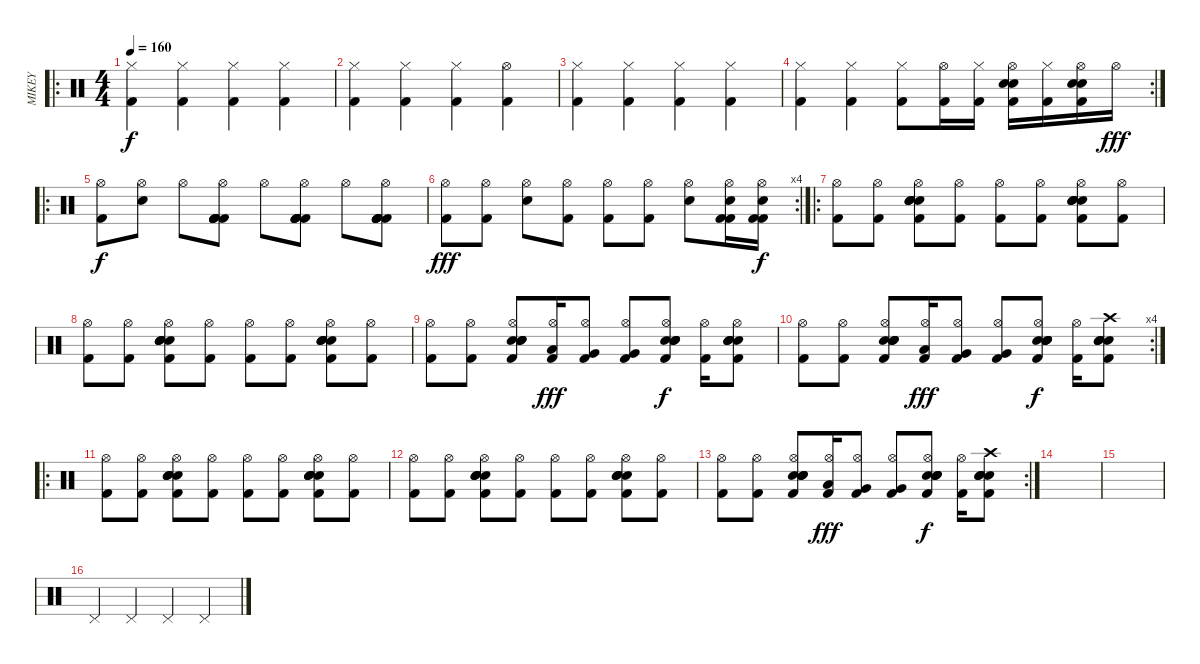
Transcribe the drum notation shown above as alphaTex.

\track ("MIKEY" "MIKEY") {instrument percussion}
\staff {score}
\articulation defaults
\ro
\ts (4 4)
\tempo 160
\clef neutral
\ks c
("Hi-Hat (closed)" "Kick (hit) 2").4{dy f} ("Hi-Hat (closed)" "Kick (hit) 2").4 ("Hi-Hat (closed)" "Kick (hit) 2").4 ("Hi-Hat (closed)" "Kick (hit) 2").4 |
("Hi-Hat (closed)" "Kick (hit) 2").4 ("Hi-Hat (closed)" "Kick (hit) 2").4 ("Hi-Hat (closed)" "Kick (hit) 2").4 ("Hi-Hat (open)" "Kick (hit) 2").4 |
("Hi-Hat (closed)" "Kick (hit) 2").4 ("Hi-Hat (closed)" "Kick (hit) 2").4 ("Hi-Hat (closed)" "Kick (hit) 2").4 ("Hi-Hat (closed)" "Kick (hit) 2").4 |
\rc 2
("Hi-Hat (closed)" "Kick (hit) 2").4 ("Hi-Hat (closed)" "Kick (hit) 2").4 ("Hi-Hat (closed)" "Kick (hit) 2").8 ("Hi-Hat (open)" "Kick (hit) 2").16 ("Hi-Hat (closed)" "Kick (hit) 2").16 ("Hi-Hat (open)" "Kick (hit) 2" "Electric Snare (hit)" "Electric Snare (hit)").16 ("Hi-Hat (closed)" "Kick (hit) 2").16 ("Hi-Hat (open)" "Kick (hit) 2" "Electric Snare (hit)" "Electric Snare (hit)").16 "Hi-Hat (open)".16{dy fff} |
\ro
("Kick (hit) 2" "Hi-Hat (open)").8{dy f} ("Electric Snare (hit)" "Hi-Hat (open)").8 "Hi-Hat (open)".8 ("Kick (hit) 2" "Kick (hit) 2" "Kick (hit) 2" "Kick (hit) 2" "Kick (hit) 2" "Hi-Hat (open)").8 "Hi-Hat (open)".8 ("Kick (hit) 2" "Kick (hit) 2" "Kick (hit) 2" "Kick (hit) 2" "Kick (hit) 2" "Hi-Hat (open)").8 "Hi-Hat (open)".8 ("Kick (hit) 2" "Kick (hit) 2" "Kick (hit) 2" "Kick (hit) 2" "Kick (hit) 2" "Hi-Hat (open)").8 |
\rc 4
("Kick (hit) 2" "Hi-Hat (open)").8{dy fff} ("Kick (hit) 2" "Hi-Hat (open)").8 ("Electric Snare (hit)" "Hi-Hat (open)").8 ("Kick (hit) 2" "Hi-Hat (open)").8 ("Kick (hit) 2" "Hi-Hat (open)").8 ("Kick (hit) 2" "Hi-Hat (open)").8 ("Electric Snare (hit)" "Hi-Hat (open)").8 ("Kick (hit) 2" "Kick (hit) 2" "Electric Snare (hit)" "Hi-Hat (open)").16 ("Kick (hit) 2" "Kick (hit) 2" "Electric Snare (hit)" "Hi-Hat (open)").16{dy f} |
\ro
("Hi-Hat (open)" "Kick (hit) 2").8 ("Hi-Hat (open)" "Kick (hit) 2").8 ("Kick (hit) 2" "Electric Snare (hit)" "Electric Snare (hit)" "Electric Snare (hit)" "Hi-Hat (open)" "Electric Snare (hit)").8 ("Hi-Hat (open)" "Kick (hit) 2").8 ("Hi-Hat (open)" "Kick (hit) 2").8 ("Hi-Hat (open)" "Kick (hit) 2").8 ("Kick (hit) 2" "Electric Snare (hit)" "Electric Snare (hit)" "Electric Snare (hit)" "Hi-Hat (open)" "Electric Snare (hit)").8 ("Hi-Hat (open)" "Kick (hit) 2").8 |
("Hi-Hat (open)" "Kick (hit) 2").8 ("Hi-Hat (open)" "Kick (hit) 2").8 ("Kick (hit) 2" "Electric Snare (hit)" "Electric Snare (hit)" "Electric Snare (hit)" "Hi-Hat (open)" "Electric Snare (hit)").8 ("Hi-Hat (open)" "Kick (hit) 2").8 ("Hi-Hat (open)" "Kick (hit) 2").8 ("Hi-Hat (open)" "Kick (hit) 2").8 ("Kick (hit) 2" "Electric Snare (hit)" "Electric Snare (hit)" "Electric Snare (hit)" "Hi-Hat (open)" "Electric Snare (hit)").8 ("Hi-Hat (open)" "Kick (hit) 2").8 |
("Hi-Hat (open)" "Kick (hit) 2").8 ("Hi-Hat (open)" "Kick (hit) 2").8 ("Kick (hit) 2" "Electric Snare (hit)" "Electric Snare (hit)" "Electric Snare (hit)" "Hi-Hat (open)" "Electric Snare (hit)").8 ("Low Tom (hit)" "Hi-Hat (open)" "Kick (hit) 2").16{dy fff} ("Very Low Tom (hit)" "Hi-Hat (open)" "Kick (hit) 2").8 ("Very Low Tom (hit)" "Hi-Hat (open)" "Kick (hit) 2").8 ("Kick (hit) 2" "Electric Snare (hit)" "Electric Snare (hit)" "Electric Snare (hit)" "Hi-Hat (open)" "Electric Snare (hit)").8{dy f} ("Hi-Hat (open)" "Kick (hit) 2").16 ("Kick (hit) 2" "Electric Snare (hit)" "Electric Snare (hit)" "Electric Snare (hit)" "Hi-Hat (open)" "Electric Snare (hit)").8 |
\rc 4
("Hi-Hat (open)" "Kick (hit) 2").8 ("Hi-Hat (open)" "Kick (hit) 2").8 ("Kick (hit) 2" "Electric Snare (hit)" "Electric Snare (hit)" "Electric Snare (hit)" "Hi-Hat (open)" "Electric Snare (hit)").8 ("Low Tom (hit)" "Hi-Hat (open)" "Kick (hit) 2").16{dy fff} ("Very Low Tom (hit)" "Hi-Hat (open)" "Kick (hit) 2").8 ("Very Low Tom (hit)" "Hi-Hat (open)" "Kick (hit) 2").8 ("Kick (hit) 2" "Electric Snare (hit)" "Electric Snare (hit)" "Electric Snare (hit)" "Hi-Hat (open)" "Electric Snare (hit)").8{dy f} ("Hi-Hat (open)" "Kick (hit) 2").16 ("Kick (hit) 2" "Electric Snare (hit)" "Electric Snare (hit)" "Electric Snare (hit)" "Crash high (hit)" "Electric Snare (hit)").8 |
\ro
("Hi-Hat (open)" "Kick (hit) 2").8 ("Hi-Hat (open)" "Kick (hit) 2").8 ("Kick (hit) 2" "Electric Snare (hit)" "Electric Snare (hit)" "Electric Snare (hit)" "Hi-Hat (open)" "Electric Snare (hit)").8 ("Hi-Hat (open)" "Kick (hit) 2").8 ("Hi-Hat (open)" "Kick (hit) 2").8 ("Hi-Hat (open)" "Kick (hit) 2").8 ("Kick (hit) 2" "Electric Snare (hit)" "Electric Snare (hit)" "Electric Snare (hit)" "Hi-Hat (open)" "Electric Snare (hit)").8 ("Hi-Hat (open)" "Kick (hit) 2").8 |
("Hi-Hat (open)" "Kick (hit) 2").8 ("Hi-Hat (open)" "Kick (hit) 2").8 ("Kick (hit) 2" "Electric Snare (hit)" "Electric Snare (hit)" "Electric Snare (hit)" "Hi-Hat (open)" "Electric Snare (hit)").8 ("Hi-Hat (open)" "Kick (hit) 2").8 ("Hi-Hat (open)" "Kick (hit) 2").8 ("Hi-Hat (open)" "Kick (hit) 2").8 ("Kick (hit) 2" "Electric Snare (hit)" "Electric Snare (hit)" "Electric Snare (hit)" "Hi-Hat (open)" "Electric Snare (hit)").8 ("Hi-Hat (open)" "Kick (hit) 2").8 |
\rc 2
("Hi-Hat (open)" "Kick (hit) 2").8 ("Hi-Hat (open)" "Kick (hit) 2").8 ("Kick (hit) 2" "Electric Snare (hit)" "Electric Snare (hit)" "Electric Snare (hit)" "Hi-Hat (open)" "Electric Snare (hit)").8 ("Low Tom (hit)" "Hi-Hat (open)" "Kick (hit) 2").16{dy fff} ("Very Low Tom (hit)" "Hi-Hat (open)" "Kick (hit) 2").8 ("Very Low Tom (hit)" "Hi-Hat (open)" "Kick (hit) 2").8 ("Kick (hit) 2" "Electric Snare (hit)" "Electric Snare (hit)" "Electric Snare (hit)" "Hi-Hat (open)" "Electric Snare (hit)").8{dy f} ("Hi-Hat (open)" "Kick (hit) 2").16 ("Kick (hit) 2" "Electric Snare (hit)" "Electric Snare (hit)" "Electric Snare (hit)" "Crash high (hit)" "Electric Snare (hit)").8 |
|
|
"Pedal Hi-Hat (hit)".4 "Pedal Hi-Hat (hit)".4 "Pedal Hi-Hat (hit)".4 "Pedal Hi-Hat (hit)".4
